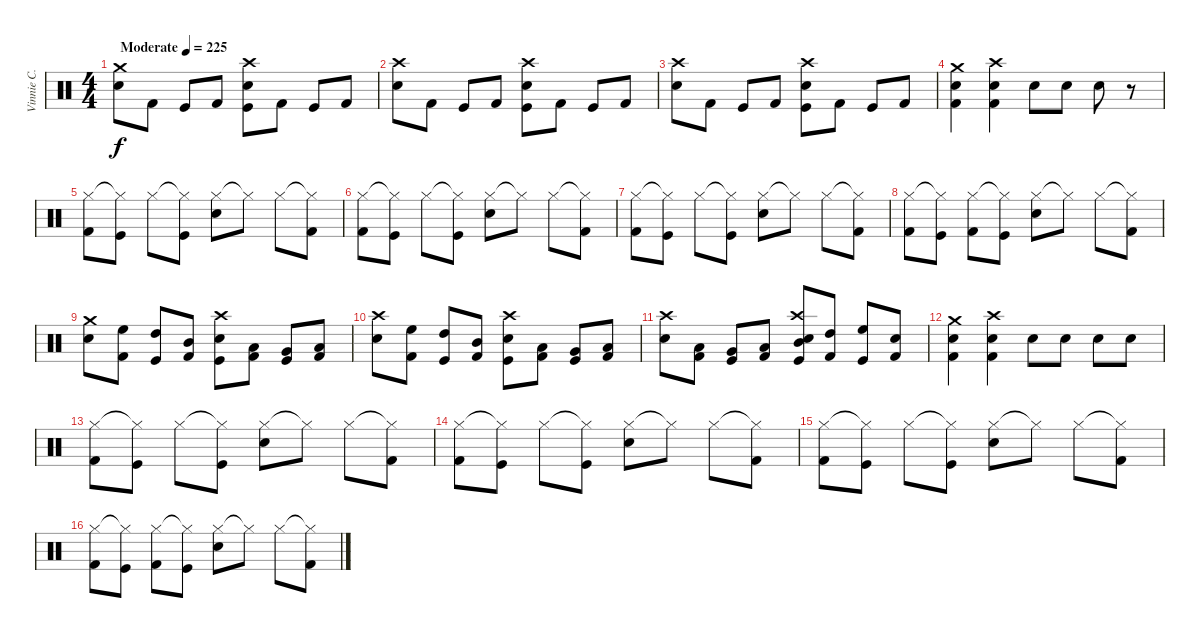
\track ("Vinnie C." "Vinnie C.") {instrument percussion}
\staff {score}
\articulation defaults
\ts (4 4)
\tempo (225 "Moderate")
\clef neutral
\ks c
("Crash medium (hit)" "Electric Snare (hit)").8{dy f} "Kick (hit) 2".8 "Kick (hit)".8 "Kick (hit) 2".8 ("Crash high (hit)" "Electric Snare (hit)" "Kick (hit)").8 "Kick (hit) 2".8 "Kick (hit)".8 "Kick (hit) 2".8 |
("Crash high (hit)" "Electric Snare (hit)").8 "Kick (hit) 2".8 "Kick (hit)".8 "Kick (hit) 2".8 ("Crash high (hit)" "Electric Snare (hit)" "Kick (hit)").8 "Kick (hit) 2".8 "Kick (hit)".8 "Kick (hit) 2".8 |
("Crash high (hit)" "Electric Snare (hit)").8 "Kick (hit) 2".8 "Kick (hit)".8 "Kick (hit) 2".8 ("Crash high (hit)" "Electric Snare (hit)" "Kick (hit)").8 "Kick (hit) 2".8 "Kick (hit)".8 "Kick (hit) 2".8 |
("Crash medium (hit)" "Electric Snare (hit)" "Kick (hit) 2").4 ("Crash high (hit)" "Electric Snare (hit)" "Kick (hit) 2").4 "Electric Snare (hit)".8 "Electric Snare (hit)".8 "Electric Snare (hit)".8 r.8 |
("Hi-Hat (closed)" "Kick (hit) 2").8 ("Hi-Hat (closed)"{t} "Kick (hit)").8 "Hi-Hat (closed)".8 ("Hi-Hat (closed)"{t} "Kick (hit)").8 ("Hi-Hat (closed)" "Electric Snare (hit)").8 "Hi-Hat (closed)"{t}.8 "Hi-Hat (closed)".8 ("Hi-Hat (closed)"{t} "Kick (hit) 2").8 |
("Hi-Hat (closed)" "Kick (hit) 2").8 ("Hi-Hat (closed)"{t} "Kick (hit)").8 "Hi-Hat (closed)".8 ("Hi-Hat (closed)"{t} "Kick (hit)").8 ("Hi-Hat (closed)" "Electric Snare (hit)").8 "Hi-Hat (closed)"{t}.8 "Hi-Hat (closed)".8 ("Hi-Hat (closed)"{t} "Kick (hit) 2").8 |
("Hi-Hat (closed)" "Kick (hit) 2").8 ("Hi-Hat (closed)"{t} "Kick (hit)").8 "Hi-Hat (closed)".8 ("Hi-Hat (closed)"{t} "Kick (hit)").8 ("Hi-Hat (closed)" "Electric Snare (hit)").8 "Hi-Hat (closed)"{t}.8 "Hi-Hat (closed)".8 ("Hi-Hat (closed)"{t} "Kick (hit) 2").8 |
("Hi-Hat (closed)" "Kick (hit) 2").8 ("Hi-Hat (closed)"{t} "Kick (hit)").8 ("Hi-Hat (closed)" "Kick (hit) 2").8 ("Hi-Hat (closed)"{t} "Kick (hit)").8 ("Hi-Hat (closed)" "Electric Snare (hit)").8 "Hi-Hat (closed)"{t}.8 "Hi-Hat (closed)".8 ("Hi-Hat (closed)"{t} "Kick (hit) 2").8 |
("Crash medium (hit)" "Electric Snare (hit)").8 ("High Floor Tom (hit)" "Kick (hit) 2").8 ("High Tom (hit)" "Kick (hit)").8 ("Mid Tom (hit)" "Kick (hit) 2").8 ("Crash high (hit)" "Electric Snare (hit)" "Kick (hit)").8 ("Low Tom (hit)" "Kick (hit) 2").8 ("Very Low Tom (hit)" "Kick (hit)").8 ("Low Floor Tom (hit)" "Kick (hit) 2").8 |
("Crash high (hit)" "Electric Snare (hit)").8 ("High Floor Tom (hit)" "Kick (hit) 2").8 ("High Tom (hit)" "Kick (hit)").8 ("Mid Tom (hit)" "Kick (hit) 2").8 ("Crash high (hit)" "Electric Snare (hit)" "Kick (hit)").8 ("Low Tom (hit)" "Kick (hit) 2").8 ("Very Low Tom (hit)" "Kick (hit)").8 ("Low Floor Tom (hit)" "Kick (hit) 2").8 |
("Crash high (hit)" "Electric Snare (hit)").8 ("Low Floor Tom (hit)" "Kick (hit) 2").8 ("Very Low Tom (hit)" "Kick (hit)").8 ("Low Tom (hit)" "Kick (hit) 2").8 ("Crash high (hit)" "Mid Tom (hit)" "Electric Snare (hit)" "Kick (hit)").8 ("High Tom (hit)" "Kick (hit) 2").8 ("High Floor Tom (hit)" "Kick (hit)").8 ("Electric Snare (hit)" "Kick (hit) 2").8 |
("Crash medium (hit)" "Electric Snare (hit)" "Kick (hit) 2").4 ("Crash high (hit)" "Electric Snare (hit)" "Kick (hit) 2").4 "Electric Snare (hit)".8 "Electric Snare (hit)".8 "Electric Snare (hit)".8 "Electric Snare (hit)".8 |
("Hi-Hat (closed)" "Kick (hit) 2").8 ("Hi-Hat (closed)"{t} "Kick (hit)").8 "Hi-Hat (closed)".8 ("Hi-Hat (closed)"{t} "Kick (hit)").8 ("Hi-Hat (closed)" "Electric Snare (hit)").8 "Hi-Hat (closed)"{t}.8 "Hi-Hat (closed)".8 ("Hi-Hat (closed)"{t} "Kick (hit) 2").8 |
("Hi-Hat (closed)" "Kick (hit) 2").8 ("Hi-Hat (closed)"{t} "Kick (hit)").8 "Hi-Hat (closed)".8 ("Hi-Hat (closed)"{t} "Kick (hit)").8 ("Hi-Hat (closed)" "Electric Snare (hit)").8 "Hi-Hat (closed)"{t}.8 "Hi-Hat (closed)".8 ("Hi-Hat (closed)"{t} "Kick (hit) 2").8 |
("Hi-Hat (closed)" "Kick (hit) 2").8 ("Hi-Hat (closed)"{t} "Kick (hit)").8 "Hi-Hat (closed)".8 ("Hi-Hat (closed)"{t} "Kick (hit)").8 ("Hi-Hat (closed)" "Electric Snare (hit)").8 "Hi-Hat (closed)"{t}.8 "Hi-Hat (closed)".8 ("Hi-Hat (closed)"{t} "Kick (hit) 2").8 |
("Hi-Hat (closed)" "Kick (hit) 2").8 ("Hi-Hat (closed)"{t} "Kick (hit)").8 ("Hi-Hat (closed)" "Kick (hit) 2").8 ("Hi-Hat (closed)"{t} "Kick (hit)").8 ("Hi-Hat (closed)" "Electric Snare (hit)").8 "Hi-Hat (closed)"{t}.8 "Hi-Hat (closed)".8 ("Hi-Hat (closed)"{t} "Kick (hit) 2").8
